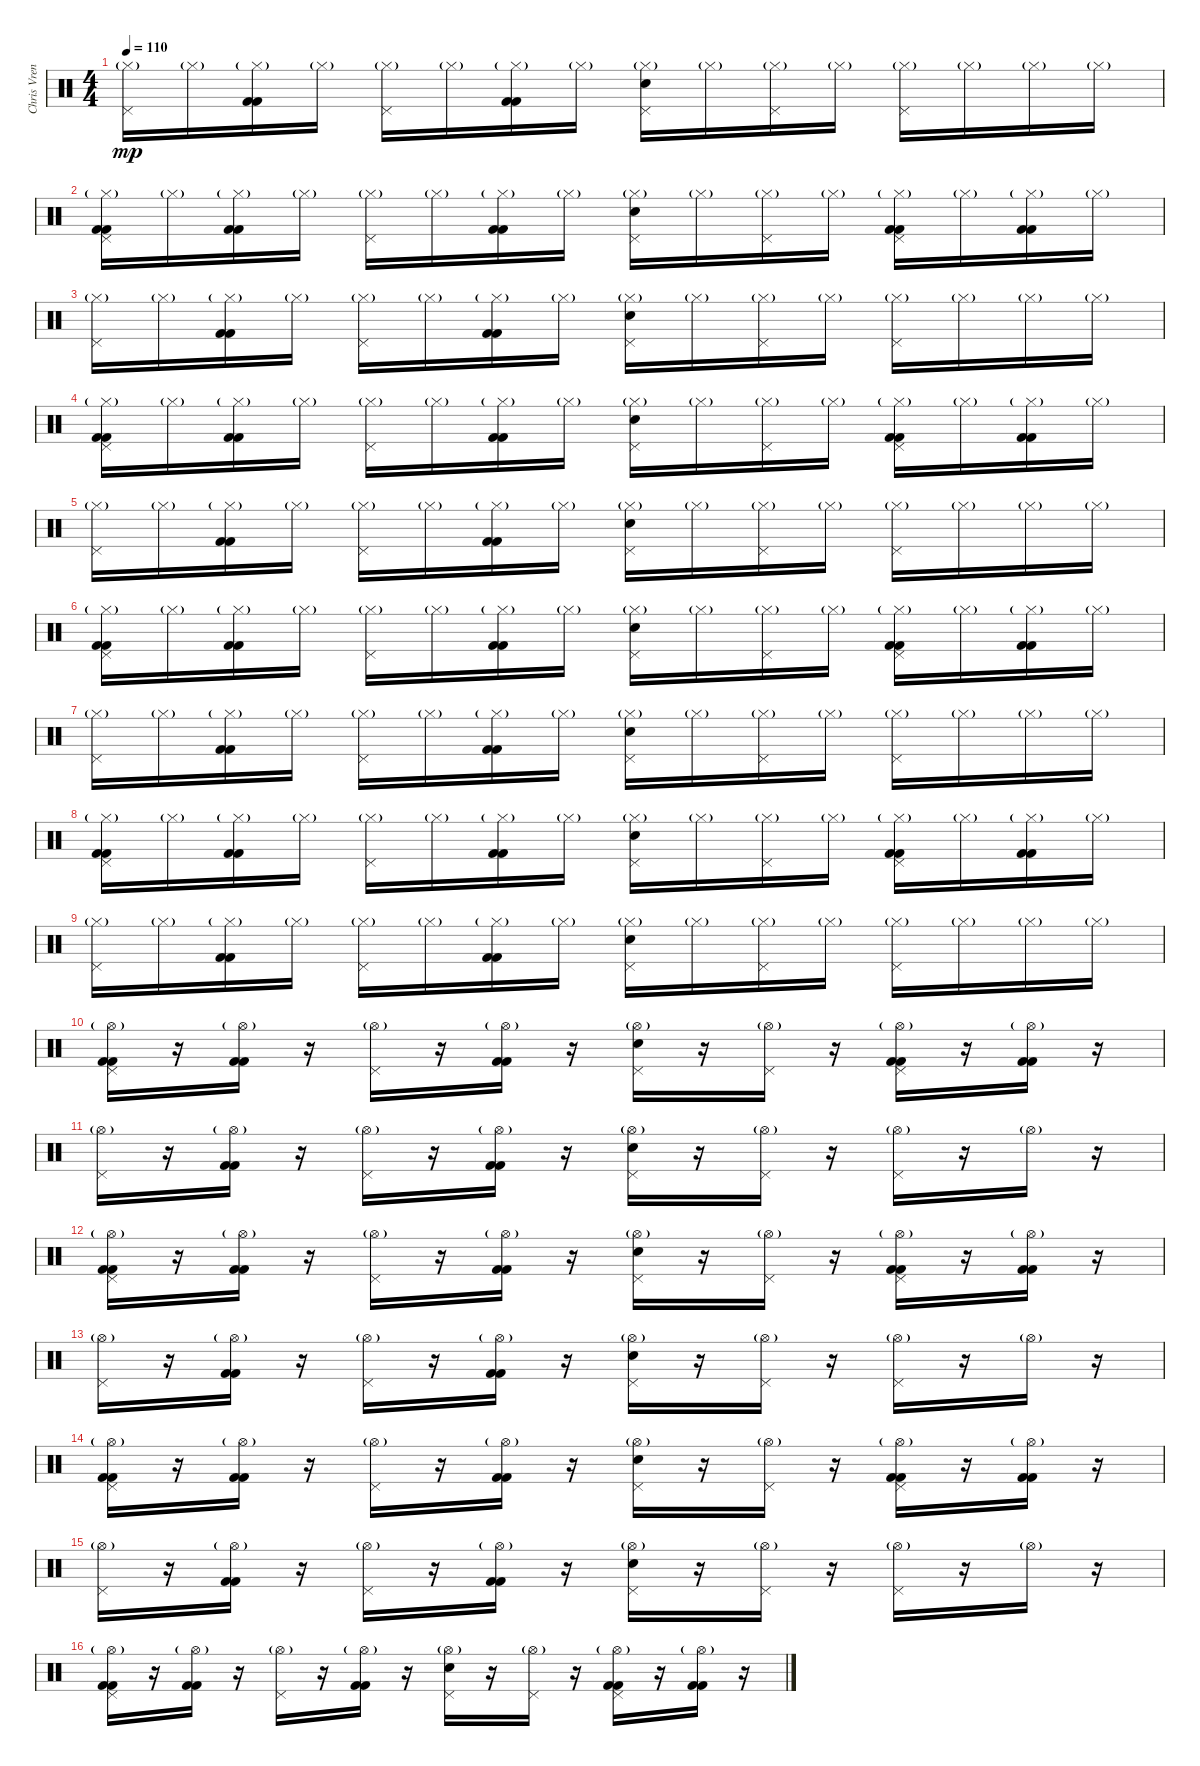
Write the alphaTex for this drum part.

\track ("Chris Vrenna " "Chris Vren") {instrument percussion}
\staff {score}
\articulation defaults
\ts (4 4)
\tempo 110
\clef neutral
\ks c
("Pedal Hi-Hat (hit)" "Hi-Hat (closed)"{g}).16{dy mp} "Hi-Hat (closed)"{g}.16 ("Hi-Hat (closed)"{g} "Kick (hit) 2" "Kick (hit) 2").16 "Hi-Hat (closed)"{g}.16 ("Pedal Hi-Hat (hit)" "Hi-Hat (closed)"{g}).16 "Hi-Hat (closed)"{g}.16 ("Hi-Hat (closed)"{g} "Kick (hit) 2" "Kick (hit) 2").16 "Hi-Hat (closed)"{g}.16 ("Pedal Hi-Hat (hit)" "Hi-Hat (closed)"{g} "Electric Snare (hit)").16 "Hi-Hat (closed)"{g}.16 ("Pedal Hi-Hat (hit)" "Hi-Hat (closed)"{g}).16 "Hi-Hat (closed)"{g}.16 ("Pedal Hi-Hat (hit)" "Hi-Hat (closed)"{g}).16 "Hi-Hat (closed)"{g}.16 "Hi-Hat (closed)"{g}.16 "Hi-Hat (closed)"{g}.16 |
("Pedal Hi-Hat (hit)" "Hi-Hat (closed)"{g} "Kick (hit) 2" "Kick (hit) 2").16 "Hi-Hat (closed)"{g}.16 ("Hi-Hat (closed)"{g} "Kick (hit) 2" "Kick (hit) 2").16 "Hi-Hat (closed)"{g}.16 ("Pedal Hi-Hat (hit)" "Hi-Hat (closed)"{g}).16 "Hi-Hat (closed)"{g}.16 ("Hi-Hat (closed)"{g} "Kick (hit) 2" "Kick (hit) 2").16 "Hi-Hat (closed)"{g}.16 ("Pedal Hi-Hat (hit)" "Hi-Hat (closed)"{g} "Electric Snare (hit)").16 "Hi-Hat (closed)"{g}.16 ("Pedal Hi-Hat (hit)" "Hi-Hat (closed)"{g}).16 "Hi-Hat (closed)"{g}.16 ("Pedal Hi-Hat (hit)" "Hi-Hat (closed)"{g} "Kick (hit) 2" "Kick (hit) 2").16 "Hi-Hat (closed)"{g}.16 ("Hi-Hat (closed)"{g} "Kick (hit) 2" "Kick (hit) 2").16 "Hi-Hat (closed)"{g}.16 |
("Pedal Hi-Hat (hit)" "Hi-Hat (closed)"{g}).16 "Hi-Hat (closed)"{g}.16 ("Hi-Hat (closed)"{g} "Kick (hit) 2" "Kick (hit) 2").16 "Hi-Hat (closed)"{g}.16 ("Pedal Hi-Hat (hit)" "Hi-Hat (closed)"{g}).16 "Hi-Hat (closed)"{g}.16 ("Hi-Hat (closed)"{g} "Kick (hit) 2" "Kick (hit) 2").16 "Hi-Hat (closed)"{g}.16 ("Pedal Hi-Hat (hit)" "Hi-Hat (closed)"{g} "Electric Snare (hit)").16 "Hi-Hat (closed)"{g}.16 ("Pedal Hi-Hat (hit)" "Hi-Hat (closed)"{g}).16 "Hi-Hat (closed)"{g}.16 ("Pedal Hi-Hat (hit)" "Hi-Hat (closed)"{g}).16 "Hi-Hat (closed)"{g}.16 "Hi-Hat (closed)"{g}.16 "Hi-Hat (closed)"{g}.16 |
("Pedal Hi-Hat (hit)" "Hi-Hat (closed)"{g} "Kick (hit) 2" "Kick (hit) 2").16 "Hi-Hat (closed)"{g}.16 ("Hi-Hat (closed)"{g} "Kick (hit) 2" "Kick (hit) 2").16 "Hi-Hat (closed)"{g}.16 ("Pedal Hi-Hat (hit)" "Hi-Hat (closed)"{g}).16 "Hi-Hat (closed)"{g}.16 ("Hi-Hat (closed)"{g} "Kick (hit) 2" "Kick (hit) 2").16 "Hi-Hat (closed)"{g}.16 ("Pedal Hi-Hat (hit)" "Hi-Hat (closed)"{g} "Electric Snare (hit)").16 "Hi-Hat (closed)"{g}.16 ("Pedal Hi-Hat (hit)" "Hi-Hat (closed)"{g}).16 "Hi-Hat (closed)"{g}.16 ("Pedal Hi-Hat (hit)" "Hi-Hat (closed)"{g} "Kick (hit) 2" "Kick (hit) 2").16 "Hi-Hat (closed)"{g}.16 ("Hi-Hat (closed)"{g} "Kick (hit) 2" "Kick (hit) 2").16 "Hi-Hat (closed)"{g}.16 |
("Pedal Hi-Hat (hit)" "Hi-Hat (closed)"{g}).16 "Hi-Hat (closed)"{g}.16 ("Hi-Hat (closed)"{g} "Kick (hit) 2" "Kick (hit) 2").16 "Hi-Hat (closed)"{g}.16 ("Pedal Hi-Hat (hit)" "Hi-Hat (closed)"{g}).16 "Hi-Hat (closed)"{g}.16 ("Hi-Hat (closed)"{g} "Kick (hit) 2" "Kick (hit) 2").16 "Hi-Hat (closed)"{g}.16 ("Pedal Hi-Hat (hit)" "Hi-Hat (closed)"{g} "Electric Snare (hit)").16 "Hi-Hat (closed)"{g}.16 ("Pedal Hi-Hat (hit)" "Hi-Hat (closed)"{g}).16 "Hi-Hat (closed)"{g}.16 ("Pedal Hi-Hat (hit)" "Hi-Hat (closed)"{g}).16 "Hi-Hat (closed)"{g}.16 "Hi-Hat (closed)"{g}.16 "Hi-Hat (closed)"{g}.16 |
("Pedal Hi-Hat (hit)" "Hi-Hat (closed)"{g} "Kick (hit) 2" "Kick (hit) 2").16 "Hi-Hat (closed)"{g}.16 ("Hi-Hat (closed)"{g} "Kick (hit) 2" "Kick (hit) 2").16 "Hi-Hat (closed)"{g}.16 ("Pedal Hi-Hat (hit)" "Hi-Hat (closed)"{g}).16 "Hi-Hat (closed)"{g}.16 ("Hi-Hat (closed)"{g} "Kick (hit) 2" "Kick (hit) 2").16 "Hi-Hat (closed)"{g}.16 ("Pedal Hi-Hat (hit)" "Hi-Hat (closed)"{g} "Electric Snare (hit)").16 "Hi-Hat (closed)"{g}.16 ("Pedal Hi-Hat (hit)" "Hi-Hat (closed)"{g}).16 "Hi-Hat (closed)"{g}.16 ("Pedal Hi-Hat (hit)" "Hi-Hat (closed)"{g} "Kick (hit) 2" "Kick (hit) 2").16 "Hi-Hat (closed)"{g}.16 ("Hi-Hat (closed)"{g} "Kick (hit) 2" "Kick (hit) 2").16 "Hi-Hat (closed)"{g}.16 |
("Pedal Hi-Hat (hit)" "Hi-Hat (closed)"{g}).16 "Hi-Hat (closed)"{g}.16 ("Hi-Hat (closed)"{g} "Kick (hit) 2" "Kick (hit) 2").16 "Hi-Hat (closed)"{g}.16 ("Pedal Hi-Hat (hit)" "Hi-Hat (closed)"{g}).16 "Hi-Hat (closed)"{g}.16 ("Hi-Hat (closed)"{g} "Kick (hit) 2" "Kick (hit) 2").16 "Hi-Hat (closed)"{g}.16 ("Pedal Hi-Hat (hit)" "Hi-Hat (closed)"{g} "Electric Snare (hit)").16 "Hi-Hat (closed)"{g}.16 ("Pedal Hi-Hat (hit)" "Hi-Hat (closed)"{g}).16 "Hi-Hat (closed)"{g}.16 ("Pedal Hi-Hat (hit)" "Hi-Hat (closed)"{g}).16 "Hi-Hat (closed)"{g}.16 "Hi-Hat (closed)"{g}.16 "Hi-Hat (closed)"{g}.16 |
("Pedal Hi-Hat (hit)" "Hi-Hat (closed)"{g} "Kick (hit) 2" "Kick (hit) 2").16 "Hi-Hat (closed)"{g}.16 ("Hi-Hat (closed)"{g} "Kick (hit) 2" "Kick (hit) 2").16 "Hi-Hat (closed)"{g}.16 ("Pedal Hi-Hat (hit)" "Hi-Hat (closed)"{g}).16 "Hi-Hat (closed)"{g}.16 ("Hi-Hat (closed)"{g} "Kick (hit) 2" "Kick (hit) 2").16 "Hi-Hat (closed)"{g}.16 ("Pedal Hi-Hat (hit)" "Hi-Hat (closed)"{g} "Electric Snare (hit)").16 "Hi-Hat (closed)"{g}.16 ("Pedal Hi-Hat (hit)" "Hi-Hat (closed)"{g}).16 "Hi-Hat (closed)"{g}.16 ("Pedal Hi-Hat (hit)" "Hi-Hat (closed)"{g} "Kick (hit) 2" "Kick (hit) 2").16 "Hi-Hat (closed)"{g}.16 ("Hi-Hat (closed)"{g} "Kick (hit) 2" "Kick (hit) 2").16 "Hi-Hat (closed)"{g}.16 |
("Pedal Hi-Hat (hit)" "Hi-Hat (closed)"{g}).16 "Hi-Hat (closed)"{g}.16 ("Hi-Hat (closed)"{g} "Kick (hit) 2" "Kick (hit) 2").16 "Hi-Hat (closed)"{g}.16 ("Pedal Hi-Hat (hit)" "Hi-Hat (closed)"{g}).16 "Hi-Hat (closed)"{g}.16 ("Hi-Hat (closed)"{g} "Kick (hit) 2" "Kick (hit) 2").16 "Hi-Hat (closed)"{g}.16 ("Pedal Hi-Hat (hit)" "Hi-Hat (closed)"{g} "Electric Snare (hit)").16 "Hi-Hat (closed)"{g}.16 ("Pedal Hi-Hat (hit)" "Hi-Hat (closed)"{g}).16 "Hi-Hat (closed)"{g}.16 ("Pedal Hi-Hat (hit)" "Hi-Hat (closed)"{g}).16 "Hi-Hat (closed)"{g}.16 "Hi-Hat (closed)"{g}.16 "Hi-Hat (closed)"{g}.16 |
("Pedal Hi-Hat (hit)" "Hi-Hat (open)"{g} "Kick (hit) 2" "Kick (hit) 2").16 r.16 ("Hi-Hat (open)"{g} "Kick (hit) 2" "Kick (hit) 2").16 r.16 ("Pedal Hi-Hat (hit)" "Hi-Hat (open)"{g}).16 r.16 ("Hi-Hat (open)"{g} "Kick (hit) 2" "Kick (hit) 2").16 r.16 ("Pedal Hi-Hat (hit)" "Hi-Hat (open)"{g} "Electric Snare (hit)").16 r.16 ("Pedal Hi-Hat (hit)" "Hi-Hat (open)"{g}).16 r.16 ("Pedal Hi-Hat (hit)" "Hi-Hat (open)"{g} "Kick (hit) 2" "Kick (hit) 2").16 r.16 ("Hi-Hat (open)"{g} "Kick (hit) 2" "Kick (hit) 2").16 r.16 |
("Pedal Hi-Hat (hit)" "Hi-Hat (open)"{g}).16 r.16 ("Hi-Hat (open)"{g} "Kick (hit) 2" "Kick (hit) 2").16 r.16 ("Pedal Hi-Hat (hit)" "Hi-Hat (open)"{g}).16 r.16 ("Hi-Hat (open)"{g} "Kick (hit) 2" "Kick (hit) 2").16 r.16 ("Pedal Hi-Hat (hit)" "Hi-Hat (open)"{g} "Electric Snare (hit)").16 r.16 ("Pedal Hi-Hat (hit)" "Hi-Hat (open)"{g}).16 r.16 ("Pedal Hi-Hat (hit)" "Hi-Hat (open)"{g}).16 r.16 "Hi-Hat (open)"{g}.16 r.16 |
("Pedal Hi-Hat (hit)" "Hi-Hat (open)"{g} "Kick (hit) 2" "Kick (hit) 2").16 r.16 ("Hi-Hat (open)"{g} "Kick (hit) 2" "Kick (hit) 2").16 r.16 ("Pedal Hi-Hat (hit)" "Hi-Hat (open)"{g}).16 r.16 ("Hi-Hat (open)"{g} "Kick (hit) 2" "Kick (hit) 2").16 r.16 ("Pedal Hi-Hat (hit)" "Hi-Hat (open)"{g} "Electric Snare (hit)").16 r.16 ("Pedal Hi-Hat (hit)" "Hi-Hat (open)"{g}).16 r.16 ("Pedal Hi-Hat (hit)" "Hi-Hat (open)"{g} "Kick (hit) 2" "Kick (hit) 2").16 r.16 ("Hi-Hat (open)"{g} "Kick (hit) 2" "Kick (hit) 2").16 r.16 |
("Pedal Hi-Hat (hit)" "Hi-Hat (open)"{g}).16 r.16 ("Hi-Hat (open)"{g} "Kick (hit) 2" "Kick (hit) 2").16 r.16 ("Pedal Hi-Hat (hit)" "Hi-Hat (open)"{g}).16 r.16 ("Hi-Hat (open)"{g} "Kick (hit) 2" "Kick (hit) 2").16 r.16 ("Pedal Hi-Hat (hit)" "Hi-Hat (open)"{g} "Electric Snare (hit)").16 r.16 ("Pedal Hi-Hat (hit)" "Hi-Hat (open)"{g}).16 r.16 ("Pedal Hi-Hat (hit)" "Hi-Hat (open)"{g}).16 r.16 "Hi-Hat (open)"{g}.16 r.16 |
("Pedal Hi-Hat (hit)" "Hi-Hat (open)"{g} "Kick (hit) 2" "Kick (hit) 2").16 r.16 ("Hi-Hat (open)"{g} "Kick (hit) 2" "Kick (hit) 2").16 r.16 ("Pedal Hi-Hat (hit)" "Hi-Hat (open)"{g}).16 r.16 ("Hi-Hat (open)"{g} "Kick (hit) 2" "Kick (hit) 2").16 r.16 ("Pedal Hi-Hat (hit)" "Hi-Hat (open)"{g} "Electric Snare (hit)").16 r.16 ("Pedal Hi-Hat (hit)" "Hi-Hat (open)"{g}).16 r.16 ("Pedal Hi-Hat (hit)" "Hi-Hat (open)"{g} "Kick (hit) 2" "Kick (hit) 2").16 r.16 ("Hi-Hat (open)"{g} "Kick (hit) 2" "Kick (hit) 2").16 r.16 |
("Pedal Hi-Hat (hit)" "Hi-Hat (open)"{g}).16 r.16 ("Hi-Hat (open)"{g} "Kick (hit) 2" "Kick (hit) 2").16 r.16 ("Pedal Hi-Hat (hit)" "Hi-Hat (open)"{g}).16 r.16 ("Hi-Hat (open)"{g} "Kick (hit) 2" "Kick (hit) 2").16 r.16 ("Pedal Hi-Hat (hit)" "Hi-Hat (open)"{g} "Electric Snare (hit)").16 r.16 ("Pedal Hi-Hat (hit)" "Hi-Hat (open)"{g}).16 r.16 ("Pedal Hi-Hat (hit)" "Hi-Hat (open)"{g}).16 r.16 "Hi-Hat (open)"{g}.16 r.16 |
("Pedal Hi-Hat (hit)" "Hi-Hat (open)"{g} "Kick (hit) 2" "Kick (hit) 2").16 r.16 ("Hi-Hat (open)"{g} "Kick (hit) 2" "Kick (hit) 2").16 r.16 ("Pedal Hi-Hat (hit)" "Hi-Hat (open)"{g}).16 r.16 ("Hi-Hat (open)"{g} "Kick (hit) 2" "Kick (hit) 2").16 r.16 ("Pedal Hi-Hat (hit)" "Hi-Hat (open)"{g} "Electric Snare (hit)").16 r.16 ("Pedal Hi-Hat (hit)" "Hi-Hat (open)"{g}).16 r.16 ("Pedal Hi-Hat (hit)" "Hi-Hat (open)"{g} "Kick (hit) 2" "Kick (hit) 2").16 r.16 ("Hi-Hat (open)"{g} "Kick (hit) 2" "Kick (hit) 2").16 r.16
